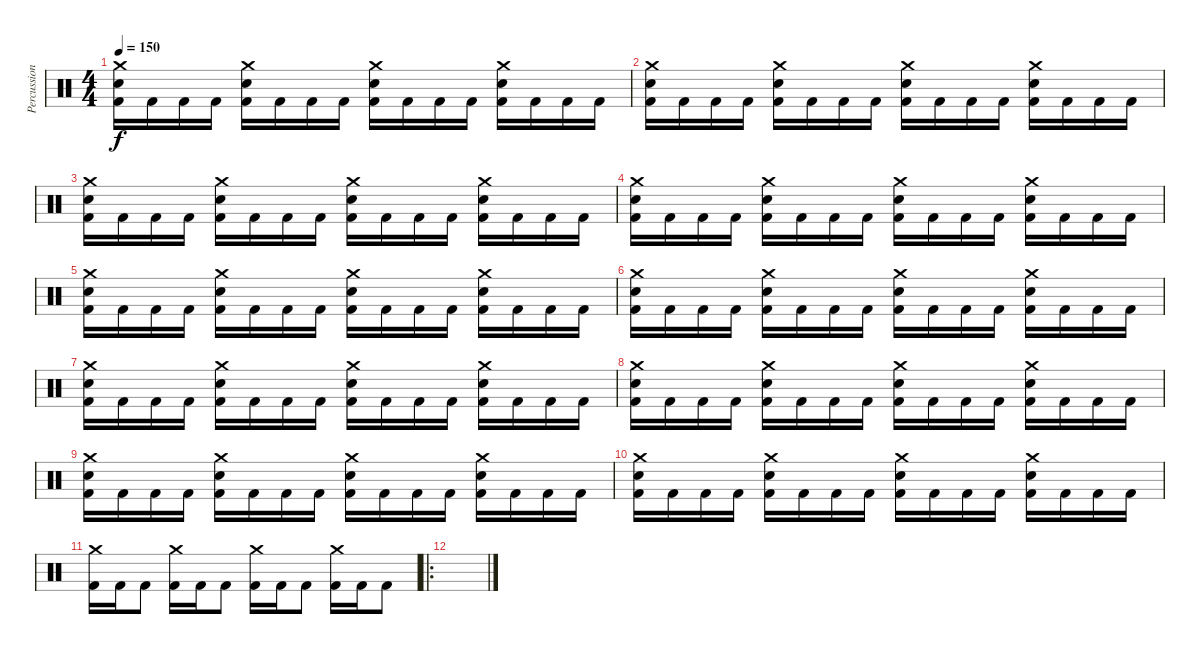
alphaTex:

\track ("Percussion" "Percussion") {instrument percussion}
\staff {score}
\articulation defaults
\ts (4 4)
\tempo 150
\clef neutral
\ks c
("Crash medium (hit)" "Electric Snare (hit)" "Kick (hit) 2").16{dy f} "Kick (hit) 2".16 "Kick (hit) 2".16 "Kick (hit) 2".16 ("Crash medium (hit)" "Electric Snare (hit)" "Kick (hit) 2").16 "Kick (hit) 2".16 "Kick (hit) 2".16 "Kick (hit) 2".16 ("Crash medium (hit)" "Electric Snare (hit)" "Kick (hit) 2").16 "Kick (hit) 2".16 "Kick (hit) 2".16 "Kick (hit) 2".16 ("Crash medium (hit)" "Electric Snare (hit)" "Kick (hit) 2").16 "Kick (hit) 2".16 "Kick (hit) 2".16 "Kick (hit) 2".16 |
("Crash medium (hit)" "Electric Snare (hit)" "Kick (hit) 2").16 "Kick (hit) 2".16 "Kick (hit) 2".16 "Kick (hit) 2".16 ("Crash medium (hit)" "Electric Snare (hit)" "Kick (hit) 2").16 "Kick (hit) 2".16 "Kick (hit) 2".16 "Kick (hit) 2".16 ("Crash medium (hit)" "Electric Snare (hit)" "Kick (hit) 2").16 "Kick (hit) 2".16 "Kick (hit) 2".16 "Kick (hit) 2".16 ("Crash medium (hit)" "Electric Snare (hit)" "Kick (hit) 2").16 "Kick (hit) 2".16 "Kick (hit) 2".16 "Kick (hit) 2".16 |
("Crash medium (hit)" "Electric Snare (hit)" "Kick (hit) 2").16 "Kick (hit) 2".16 "Kick (hit) 2".16 "Kick (hit) 2".16 ("Crash medium (hit)" "Electric Snare (hit)" "Kick (hit) 2").16 "Kick (hit) 2".16 "Kick (hit) 2".16 "Kick (hit) 2".16 ("Crash medium (hit)" "Electric Snare (hit)" "Kick (hit) 2").16 "Kick (hit) 2".16 "Kick (hit) 2".16 "Kick (hit) 2".16 ("Crash medium (hit)" "Electric Snare (hit)" "Kick (hit) 2").16 "Kick (hit) 2".16 "Kick (hit) 2".16 "Kick (hit) 2".16 |
("Crash medium (hit)" "Electric Snare (hit)" "Kick (hit) 2").16 "Kick (hit) 2".16 "Kick (hit) 2".16 "Kick (hit) 2".16 ("Crash medium (hit)" "Electric Snare (hit)" "Kick (hit) 2").16 "Kick (hit) 2".16 "Kick (hit) 2".16 "Kick (hit) 2".16 ("Crash medium (hit)" "Electric Snare (hit)" "Kick (hit) 2").16 "Kick (hit) 2".16 "Kick (hit) 2".16 "Kick (hit) 2".16 ("Crash medium (hit)" "Electric Snare (hit)" "Kick (hit) 2").16 "Kick (hit) 2".16 "Kick (hit) 2".16 "Kick (hit) 2".16 |
("Crash medium (hit)" "Electric Snare (hit)" "Kick (hit) 2").16 "Kick (hit) 2".16 "Kick (hit) 2".16 "Kick (hit) 2".16 ("Crash medium (hit)" "Electric Snare (hit)" "Kick (hit) 2").16 "Kick (hit) 2".16 "Kick (hit) 2".16 "Kick (hit) 2".16 ("Crash medium (hit)" "Electric Snare (hit)" "Kick (hit) 2").16 "Kick (hit) 2".16 "Kick (hit) 2".16 "Kick (hit) 2".16 ("Crash medium (hit)" "Electric Snare (hit)" "Kick (hit) 2").16 "Kick (hit) 2".16 "Kick (hit) 2".16 "Kick (hit) 2".16 |
("Crash medium (hit)" "Electric Snare (hit)" "Kick (hit) 2").16 "Kick (hit) 2".16 "Kick (hit) 2".16 "Kick (hit) 2".16 ("Crash medium (hit)" "Electric Snare (hit)" "Kick (hit) 2").16 "Kick (hit) 2".16 "Kick (hit) 2".16 "Kick (hit) 2".16 ("Crash medium (hit)" "Electric Snare (hit)" "Kick (hit) 2").16 "Kick (hit) 2".16 "Kick (hit) 2".16 "Kick (hit) 2".16 ("Crash medium (hit)" "Electric Snare (hit)" "Kick (hit) 2").16 "Kick (hit) 2".16 "Kick (hit) 2".16 "Kick (hit) 2".16 |
("Crash medium (hit)" "Electric Snare (hit)" "Kick (hit) 2").16 "Kick (hit) 2".16 "Kick (hit) 2".16 "Kick (hit) 2".16 ("Crash medium (hit)" "Electric Snare (hit)" "Kick (hit) 2").16 "Kick (hit) 2".16 "Kick (hit) 2".16 "Kick (hit) 2".16 ("Crash medium (hit)" "Electric Snare (hit)" "Kick (hit) 2").16 "Kick (hit) 2".16 "Kick (hit) 2".16 "Kick (hit) 2".16 ("Crash medium (hit)" "Electric Snare (hit)" "Kick (hit) 2").16 "Kick (hit) 2".16 "Kick (hit) 2".16 "Kick (hit) 2".16 |
("Crash medium (hit)" "Electric Snare (hit)" "Kick (hit) 2").16 "Kick (hit) 2".16 "Kick (hit) 2".16 "Kick (hit) 2".16 ("Crash medium (hit)" "Electric Snare (hit)" "Kick (hit) 2").16 "Kick (hit) 2".16 "Kick (hit) 2".16 "Kick (hit) 2".16 ("Crash medium (hit)" "Electric Snare (hit)" "Kick (hit) 2").16 "Kick (hit) 2".16 "Kick (hit) 2".16 "Kick (hit) 2".16 ("Crash medium (hit)" "Electric Snare (hit)" "Kick (hit) 2").16 "Kick (hit) 2".16 "Kick (hit) 2".16 "Kick (hit) 2".16 |
("Crash medium (hit)" "Electric Snare (hit)" "Kick (hit) 2").16 "Kick (hit) 2".16 "Kick (hit) 2".16 "Kick (hit) 2".16 ("Crash medium (hit)" "Electric Snare (hit)" "Kick (hit) 2").16 "Kick (hit) 2".16 "Kick (hit) 2".16 "Kick (hit) 2".16 ("Crash medium (hit)" "Electric Snare (hit)" "Kick (hit) 2").16 "Kick (hit) 2".16 "Kick (hit) 2".16 "Kick (hit) 2".16 ("Crash medium (hit)" "Electric Snare (hit)" "Kick (hit) 2").16 "Kick (hit) 2".16 "Kick (hit) 2".16 "Kick (hit) 2".16 |
("Crash medium (hit)" "Electric Snare (hit)" "Kick (hit) 2").16 "Kick (hit) 2".16 "Kick (hit) 2".16 "Kick (hit) 2".16 ("Crash medium (hit)" "Electric Snare (hit)" "Kick (hit) 2").16 "Kick (hit) 2".16 "Kick (hit) 2".16 "Kick (hit) 2".16 ("Crash medium (hit)" "Electric Snare (hit)" "Kick (hit) 2").16 "Kick (hit) 2".16 "Kick (hit) 2".16 "Kick (hit) 2".16 ("Crash medium (hit)" "Electric Snare (hit)" "Kick (hit) 2").16 "Kick (hit) 2".16 "Kick (hit) 2".16 "Kick (hit) 2".16 |
("Crash medium (hit)" "Kick (hit) 2").16 "Kick (hit) 2".16 "Kick (hit) 2".8 ("Crash medium (hit)" "Kick (hit) 2").16 "Kick (hit) 2".16 "Kick (hit) 2".8 ("Crash medium (hit)" "Kick (hit) 2").16 "Kick (hit) 2".16 "Kick (hit) 2".8 ("Crash medium (hit)" "Kick (hit) 2").16 "Kick (hit) 2".16 "Kick (hit) 2".8 |
\ro
